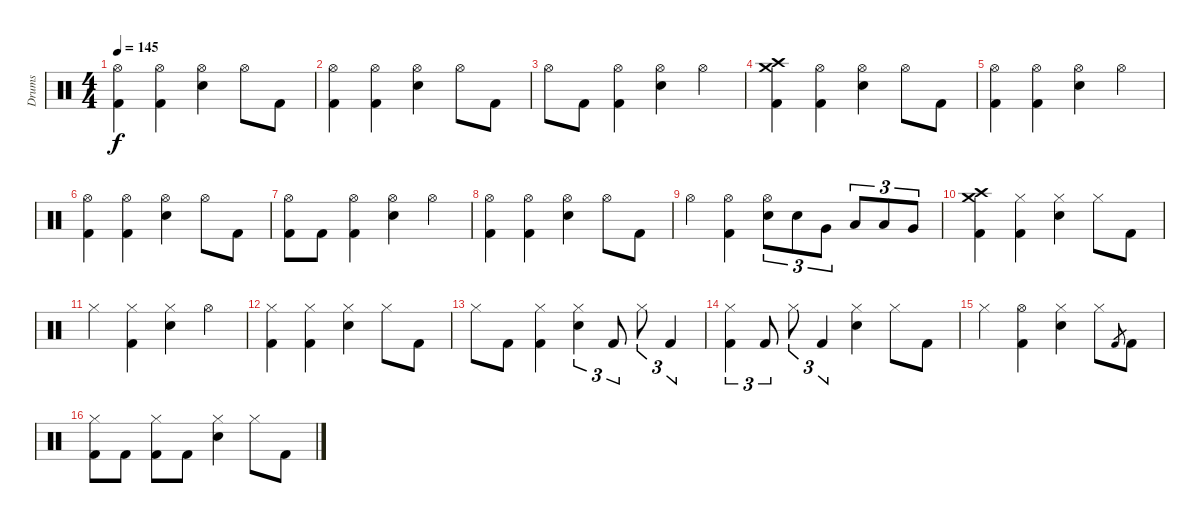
\track ("Drums" "Drums") {instrument percussion}
\staff {score}
\articulation defaults
\ts (4 4)
\tempo 145
\clef neutral
\ks c
("Hi-Hat (open)" "Kick (hit) 2").4{dy f} ("Hi-Hat (open)" "Kick (hit) 2").4 ("Hi-Hat (open)" "Electric Snare (hit)").4 "Hi-Hat (open)".8 "Kick (hit) 2".8 |
("Hi-Hat (open)" "Kick (hit) 2").4 ("Hi-Hat (open)" "Kick (hit) 2").4 ("Hi-Hat (open)" "Electric Snare (hit)").4 "Hi-Hat (open)".8 "Kick (hit) 2".8 |
"Hi-Hat (open)".8 "Kick (hit) 2".8 ("Hi-Hat (open)" "Kick (hit) 2").4 ("Hi-Hat (open)" "Electric Snare (hit)").4 "Hi-Hat (open)".4 |
("Crash medium (hit)" "Crash high (hit)" "Kick (hit) 2").4 ("Hi-Hat (open)" "Kick (hit) 2").4 ("Hi-Hat (open)" "Electric Snare (hit)").4 "Hi-Hat (open)".8 "Kick (hit) 2".8 |
("Hi-Hat (open)" "Kick (hit) 2").4 ("Hi-Hat (open)" "Kick (hit) 2").4 ("Hi-Hat (open)" "Electric Snare (hit)").4 "Hi-Hat (open)".4 |
("Hi-Hat (open)" "Kick (hit) 2").4 ("Hi-Hat (open)" "Kick (hit) 2").4 ("Hi-Hat (open)" "Electric Snare (hit)").4 "Hi-Hat (open)".8 "Kick (hit) 2".8 |
("Hi-Hat (open)" "Kick (hit) 2").8 "Kick (hit) 2".8 ("Hi-Hat (open)" "Kick (hit) 2").4 ("Hi-Hat (open)" "Electric Snare (hit)").4 "Hi-Hat (open)".4 |
("Hi-Hat (open)" "Kick (hit) 2").4 ("Hi-Hat (open)" "Kick (hit) 2").4 ("Hi-Hat (open)" "Electric Snare (hit)").4 "Hi-Hat (open)".8 "Kick (hit) 2".8 |
"Hi-Hat (open)".4 ("Hi-Hat (open)" "Kick (hit) 2").4 ("Hi-Hat (open)" "Electric Snare (hit)").8{tu (3 2)} "Electric Snare (hit)".8{tu (3 2)} "Very Low Tom (hit)".8{tu (3 2)} "Low Tom (hit)".8{tu (3 2)} "Low Tom (hit)".8{tu (3 2)} "Very Low Tom (hit)".8{tu (3 2)} |
("Crash medium (hit)" "Crash high (hit)" "Kick (hit) 2").4 ("Hi-Hat (closed)" "Kick (hit) 2").4 ("Hi-Hat (closed)" "Electric Snare (hit)").4 "Hi-Hat (closed)".8 "Kick (hit) 2".8 |
"Hi-Hat (closed)".4 ("Hi-Hat (closed)" "Kick (hit) 2").4 ("Hi-Hat (closed)" "Electric Snare (hit)").4 "Hi-Hat (open)".4 |
("Hi-Hat (closed)" "Kick (hit) 2").4 ("Hi-Hat (closed)" "Kick (hit) 2").4 ("Hi-Hat (closed)" "Electric Snare (hit)").4 "Hi-Hat (closed)".8 "Kick (hit) 2".8 |
"Hi-Hat (closed)".8 "Kick (hit) 2".8 ("Hi-Hat (closed)" "Kick (hit) 2").4 ("Hi-Hat (closed)" "Electric Snare (hit)").4{tu (3 2)} "Kick (hit) 2".8{tu (3 2)} "Hi-Hat (closed)".8{tu (3 2)} "Kick (hit) 2".4{tu (3 2)} |
("Hi-Hat (closed)" "Kick (hit) 2").4{tu (3 2)} "Kick (hit) 2".8{tu (3 2)} "Hi-Hat (closed)".8{tu (3 2)} "Kick (hit) 2".4{tu (3 2)} ("Hi-Hat (closed)" "Electric Snare (hit)").4 "Hi-Hat (closed)".8 "Kick (hit) 2".8 |
"Hi-Hat (closed)".4 ("Hi-Hat (open)" "Kick (hit) 2").4 ("Hi-Hat (closed)" "Electric Snare (hit)").4 "Hi-Hat (closed)".8 "Kick (hit) 2".8{gr} "Kick (hit) 2".8 |
("Hi-Hat (closed)" "Kick (hit) 2").8 "Kick (hit) 2".8 ("Hi-Hat (closed)" "Kick (hit) 2").8 "Kick (hit) 2".8 ("Hi-Hat (closed)" "Electric Snare (hit)").4 "Hi-Hat (closed)".8 "Kick (hit) 2".8
